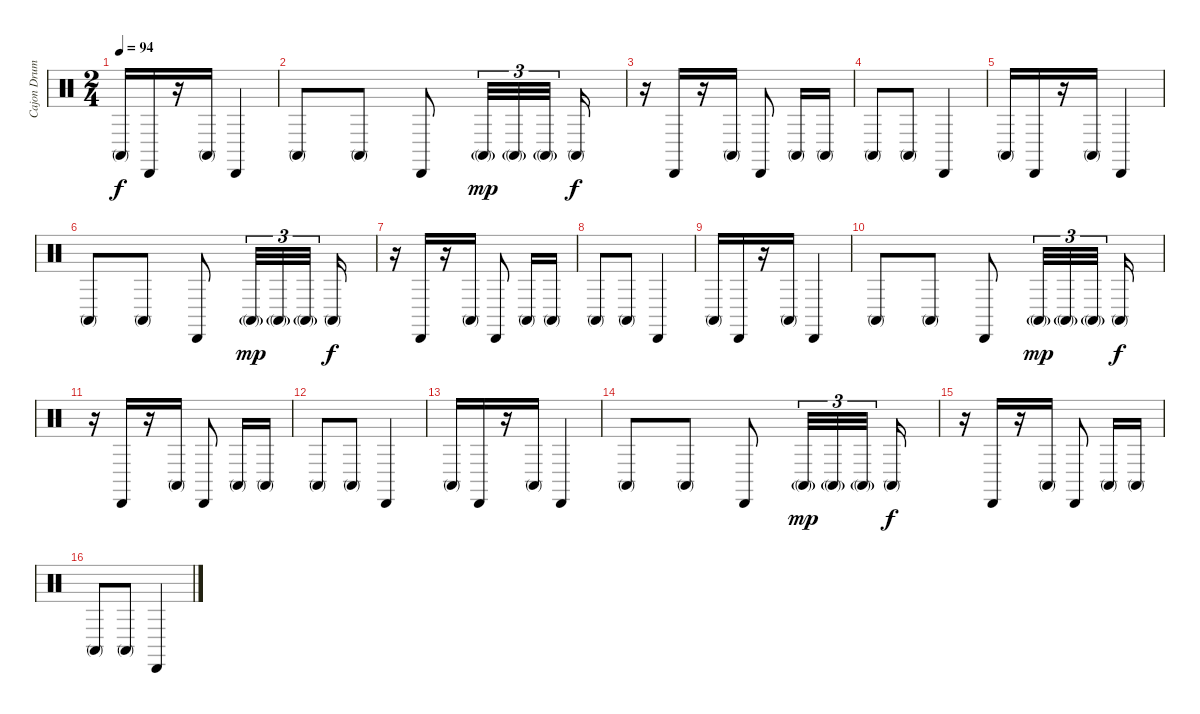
\track ("Cajon Drum" "Cajon Drum") {instrument percussion}
\staff {score}
\articulation defaults
\ts (2 4)
\tempo 94
\clef neutral
\ks c "Conga high (mute)".16{dy f} "Cabasa (hit)".16
r.16 "Conga high (mute)".16 "Cabasa (hit)".4 |
"Conga high (mute)".8 "Conga high (mute)".8 "Cabasa (hit)".8{beam split} "Conga high (mute)"{g}.32{tu (3 2) dy mp} "Conga high (mute)"{g}.32{tu (3 2)} "Conga high (mute)"{g}.32{tu (3 2) beam split} "Conga high (mute)".16{dy f} |
r.16 "Cabasa (hit)".16 r.16 "Conga high (mute)".16 "Cabasa (hit)".8{beam split} "Conga high (mute)".16 "Conga high (mute)".16 |
"Conga high (mute)".8 "Conga high (mute)".8 "Cabasa (hit)".4 |
"Conga high (mute)".16 "Cabasa (hit)".16 r.16 "Conga high (mute)".16 "Cabasa (hit)".4 |
"Conga high (mute)".8 "Conga high (mute)".8 "Cabasa (hit)".8{beam split} "Conga high (mute)"{g}.32{tu (3 2) dy mp} "Conga high (mute)"{g}.32{tu (3 2)} "Conga high (mute)"{g}.32{tu (3 2) beam split} "Conga high (mute)".16{dy f} |
r.16 "Cabasa (hit)".16 r.16 "Conga high (mute)".16 "Cabasa (hit)".8{beam split} "Conga high (mute)".16 "Conga high (mute)".16 |
"Conga high (mute)".8 "Conga high (mute)".8 "Cabasa (hit)".4 |
"Conga high (mute)".16 "Cabasa (hit)".16 r.16 "Conga high (mute)".16 "Cabasa (hit)".4 |
"Conga high (mute)".8 "Conga high (mute)".8 "Cabasa (hit)".8{beam split} "Conga high (mute)"{g}.32{tu (3 2) dy mp} "Conga high (mute)"{g}.32{tu (3 2)} "Conga high (mute)"{g}.32{tu (3 2) beam split} "Conga high (mute)".16{dy f} |
r.16 "Cabasa (hit)".16 r.16 "Conga high (mute)".16 "Cabasa (hit)".8{beam split} "Conga high (mute)".16 "Conga high (mute)".16 |
"Conga high (mute)".8 "Conga high (mute)".8 "Cabasa (hit)".4 |
"Conga high (mute)".16 "Cabasa (hit)".16 r.16 "Conga high (mute)".16 "Cabasa (hit)".4 |
"Conga high (mute)".8 "Conga high (mute)".8 "Cabasa (hit)".8{beam split} "Conga high (mute)"{g}.32{tu (3 2) dy mp} "Conga high (mute)"{g}.32{tu (3 2)} "Conga high (mute)"{g}.32{tu (3 2) beam split} "Conga high (mute)".16{dy f} |
r.16 "Cabasa (hit)".16 r.16 "Conga high (mute)".16 "Cabasa (hit)".8{beam split} "Conga high (mute)".16 "Conga high (mute)".16 |
"Conga high (mute)".8 "Conga high (mute)".8 "Cabasa (hit)".4
